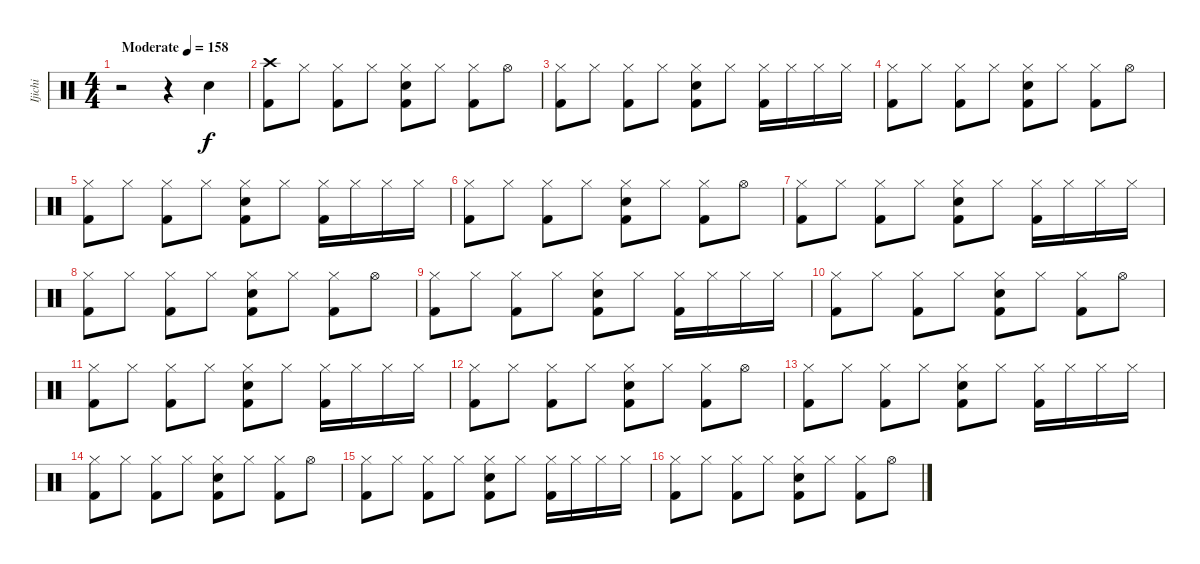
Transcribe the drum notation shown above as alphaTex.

\track ("Ijichi" "Ijichi") {instrument percussion}
\staff {score}
\articulation defaults
\ts (4 4)
\tempo (158 "Moderate")
\clef neutral
\ks c
r.2{dy f} r.4 "Electric Snare (hit)".4 |
("Crash high (hit)" "Kick (hit) 2").8 "Hi-Hat (closed)".8 ("Hi-Hat (closed)" "Kick (hit) 2").8 "Hi-Hat (closed)".8 ("Hi-Hat (closed)" "Snare (hit) 2" "Kick (hit) 2").8 "Hi-Hat (closed)".8 ("Hi-Hat (closed)" "Kick (hit) 2").8 "Hi-Hat (open)".8 |
("Hi-Hat (closed)" "Kick (hit) 2").8 "Hi-Hat (closed)".8 ("Hi-Hat (closed)" "Kick (hit) 2").8 "Hi-Hat (closed)".8 ("Hi-Hat (closed)" "Snare (hit) 2" "Kick (hit) 2").8 "Hi-Hat (closed)".8 ("Hi-Hat (closed)" "Kick (hit) 2").16 "Hi-Hat (closed)".16 "Hi-Hat (closed)".16 "Hi-Hat (closed)".16 |
("Hi-Hat (closed)" "Kick (hit) 2").8 "Hi-Hat (closed)".8 ("Hi-Hat (closed)" "Kick (hit) 2").8 "Hi-Hat (closed)".8 ("Hi-Hat (closed)" "Snare (hit) 2" "Kick (hit) 2").8 "Hi-Hat (closed)".8 ("Hi-Hat (closed)" "Kick (hit) 2").8 "Hi-Hat (open)".8 |
("Hi-Hat (closed)" "Kick (hit) 2").8 "Hi-Hat (closed)".8 ("Hi-Hat (closed)" "Kick (hit) 2").8 "Hi-Hat (closed)".8 ("Hi-Hat (closed)" "Snare (hit) 2" "Kick (hit) 2").8 "Hi-Hat (closed)".8 ("Hi-Hat (closed)" "Kick (hit) 2").16 "Hi-Hat (closed)".16 "Hi-Hat (closed)".16 "Hi-Hat (closed)".16 |
("Hi-Hat (closed)" "Kick (hit) 2").8 "Hi-Hat (closed)".8 ("Hi-Hat (closed)" "Kick (hit) 2").8 "Hi-Hat (closed)".8 ("Hi-Hat (closed)" "Snare (hit) 2" "Kick (hit) 2").8 "Hi-Hat (closed)".8 ("Hi-Hat (closed)" "Kick (hit) 2").8 "Hi-Hat (open)".8 |
("Hi-Hat (closed)" "Kick (hit) 2").8 "Hi-Hat (closed)".8 ("Hi-Hat (closed)" "Kick (hit) 2").8 "Hi-Hat (closed)".8 ("Hi-Hat (closed)" "Snare (hit) 2" "Kick (hit) 2").8 "Hi-Hat (closed)".8 ("Hi-Hat (closed)" "Kick (hit) 2").16 "Hi-Hat (closed)".16 "Hi-Hat (closed)".16 "Hi-Hat (closed)".16 |
("Hi-Hat (closed)" "Kick (hit) 2").8 "Hi-Hat (closed)".8 ("Hi-Hat (closed)" "Kick (hit) 2").8 "Hi-Hat (closed)".8 ("Hi-Hat (closed)" "Snare (hit) 2" "Kick (hit) 2").8 "Hi-Hat (closed)".8 ("Hi-Hat (closed)" "Kick (hit) 2").8 "Hi-Hat (open)".8 |
("Hi-Hat (closed)" "Kick (hit) 2").8 "Hi-Hat (closed)".8 ("Hi-Hat (closed)" "Kick (hit) 2").8 "Hi-Hat (closed)".8 ("Hi-Hat (closed)" "Snare (hit) 2" "Kick (hit) 2").8 "Hi-Hat (closed)".8 ("Hi-Hat (closed)" "Kick (hit) 2").16 "Hi-Hat (closed)".16 "Hi-Hat (closed)".16 "Hi-Hat (closed)".16 |
("Hi-Hat (closed)" "Kick (hit) 2").8 "Hi-Hat (closed)".8 ("Hi-Hat (closed)" "Kick (hit) 2").8 "Hi-Hat (closed)".8 ("Hi-Hat (closed)" "Snare (hit) 2" "Kick (hit) 2").8 "Hi-Hat (closed)".8 ("Hi-Hat (closed)" "Kick (hit) 2").8 "Hi-Hat (open)".8 |
("Hi-Hat (closed)" "Kick (hit) 2").8 "Hi-Hat (closed)".8 ("Hi-Hat (closed)" "Kick (hit) 2").8 "Hi-Hat (closed)".8 ("Hi-Hat (closed)" "Snare (hit) 2" "Kick (hit) 2").8 "Hi-Hat (closed)".8 ("Hi-Hat (closed)" "Kick (hit) 2").16 "Hi-Hat (closed)".16 "Hi-Hat (closed)".16 "Hi-Hat (closed)".16 |
("Hi-Hat (closed)" "Kick (hit) 2").8 "Hi-Hat (closed)".8 ("Hi-Hat (closed)" "Kick (hit) 2").8 "Hi-Hat (closed)".8 ("Hi-Hat (closed)" "Snare (hit) 2" "Kick (hit) 2").8 "Hi-Hat (closed)".8 ("Hi-Hat (closed)" "Kick (hit) 2").8 "Hi-Hat (open)".8 |
("Hi-Hat (closed)" "Kick (hit) 2").8 "Hi-Hat (closed)".8 ("Hi-Hat (closed)" "Kick (hit) 2").8 "Hi-Hat (closed)".8 ("Hi-Hat (closed)" "Snare (hit) 2" "Kick (hit) 2").8 "Hi-Hat (closed)".8 ("Hi-Hat (closed)" "Kick (hit) 2").16 "Hi-Hat (closed)".16 "Hi-Hat (closed)".16 "Hi-Hat (closed)".16 |
("Hi-Hat (closed)" "Kick (hit) 2").8 "Hi-Hat (closed)".8 ("Hi-Hat (closed)" "Kick (hit) 2").8 "Hi-Hat (closed)".8 ("Hi-Hat (closed)" "Snare (hit) 2" "Kick (hit) 2").8 "Hi-Hat (closed)".8 ("Hi-Hat (closed)" "Kick (hit) 2").8 "Hi-Hat (open)".8 |
("Hi-Hat (closed)" "Kick (hit) 2").8 "Hi-Hat (closed)".8 ("Hi-Hat (closed)" "Kick (hit) 2").8 "Hi-Hat (closed)".8 ("Hi-Hat (closed)" "Snare (hit) 2" "Kick (hit) 2").8 "Hi-Hat (closed)".8 ("Hi-Hat (closed)" "Kick (hit) 2").16 "Hi-Hat (closed)".16 "Hi-Hat (closed)".16 "Hi-Hat (closed)".16 |
("Hi-Hat (closed)" "Kick (hit) 2").8 "Hi-Hat (closed)".8 ("Hi-Hat (closed)" "Kick (hit) 2").8 "Hi-Hat (closed)".8 ("Hi-Hat (closed)" "Snare (hit) 2" "Kick (hit) 2").8 "Hi-Hat (closed)".8 ("Hi-Hat (closed)" "Kick (hit) 2").8 "Hi-Hat (open)".8
